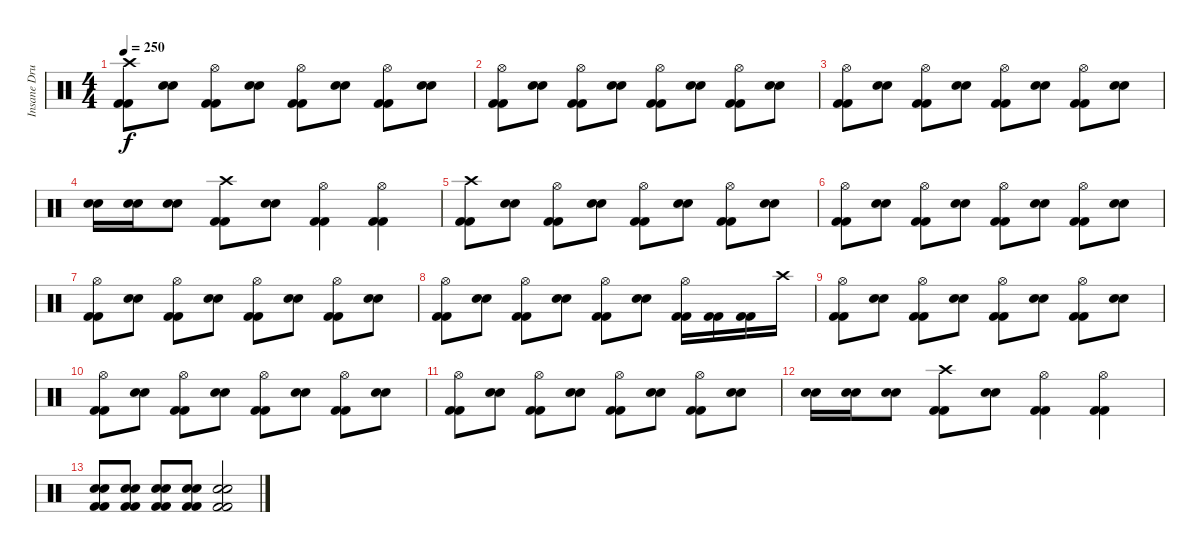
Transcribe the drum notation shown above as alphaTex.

\track ("Insane Drums" "Insane Dru") {instrument percussion}
\staff {score}
\articulation defaults
\ts (4 4)
\tempo 250
\clef neutral
\ks c
("Kick (hit) 2" "Kick (hit) 2" "Crash high (hit)").8{dy f} ("Electric Snare (hit)" "Electric Snare (hit)").8 ("Kick (hit) 2" "Kick (hit) 2" "Hi-Hat (open)").8 ("Electric Snare (hit)" "Electric Snare (hit)").8 ("Kick (hit) 2" "Kick (hit) 2" "Hi-Hat (open)").8 ("Electric Snare (hit)" "Electric Snare (hit)").8 ("Kick (hit) 2" "Kick (hit) 2" "Hi-Hat (open)").8 ("Electric Snare (hit)" "Electric Snare (hit)").8 |
("Kick (hit) 2" "Kick (hit) 2" "Hi-Hat (open)").8 ("Electric Snare (hit)" "Electric Snare (hit)").8 ("Kick (hit) 2" "Kick (hit) 2" "Hi-Hat (open)").8 ("Electric Snare (hit)" "Electric Snare (hit)").8 ("Kick (hit) 2" "Kick (hit) 2" "Hi-Hat (open)").8 ("Electric Snare (hit)" "Electric Snare (hit)").8 ("Kick (hit) 2" "Kick (hit) 2" "Hi-Hat (open)").8 ("Electric Snare (hit)" "Electric Snare (hit)").8 |
("Kick (hit) 2" "Kick (hit) 2" "Hi-Hat (open)").8 ("Electric Snare (hit)" "Electric Snare (hit)").8 ("Kick (hit) 2" "Kick (hit) 2" "Hi-Hat (open)").8 ("Electric Snare (hit)" "Electric Snare (hit)").8 ("Kick (hit) 2" "Kick (hit) 2" "Hi-Hat (open)").8 ("Electric Snare (hit)" "Electric Snare (hit)").8 ("Kick (hit) 2" "Kick (hit) 2" "Hi-Hat (open)").8 ("Electric Snare (hit)" "Electric Snare (hit)").8 |
("Electric Snare (hit)" "Electric Snare (hit)").16 ("Electric Snare (hit)" "Electric Snare (hit)").16 ("Electric Snare (hit)" "Electric Snare (hit)").8 ("Kick (hit) 2" "Kick (hit) 2" "Crash high (hit)").8 ("Electric Snare (hit)" "Electric Snare (hit)").8 ("Kick (hit) 2" "Kick (hit) 2" "Hi-Hat (open)").4 ("Kick (hit) 2" "Kick (hit) 2" "Hi-Hat (open)").4 |
("Kick (hit) 2" "Kick (hit) 2" "Crash high (hit)").8 ("Electric Snare (hit)" "Electric Snare (hit)").8 ("Kick (hit) 2" "Kick (hit) 2" "Hi-Hat (open)").8 ("Electric Snare (hit)" "Electric Snare (hit)").8 ("Kick (hit) 2" "Kick (hit) 2" "Hi-Hat (open)").8 ("Electric Snare (hit)" "Electric Snare (hit)").8 ("Kick (hit) 2" "Kick (hit) 2" "Hi-Hat (open)").8 ("Electric Snare (hit)" "Electric Snare (hit)").8 |
("Kick (hit) 2" "Kick (hit) 2" "Hi-Hat (open)").8 ("Electric Snare (hit)" "Electric Snare (hit)").8 ("Kick (hit) 2" "Kick (hit) 2" "Hi-Hat (open)").8 ("Electric Snare (hit)" "Electric Snare (hit)").8 ("Kick (hit) 2" "Kick (hit) 2" "Hi-Hat (open)").8 ("Electric Snare (hit)" "Electric Snare (hit)").8 ("Kick (hit) 2" "Kick (hit) 2" "Hi-Hat (open)").8 ("Electric Snare (hit)" "Electric Snare (hit)").8 |
("Kick (hit) 2" "Kick (hit) 2" "Hi-Hat (open)").8 ("Electric Snare (hit)" "Electric Snare (hit)").8 ("Kick (hit) 2" "Kick (hit) 2" "Hi-Hat (open)").8 ("Electric Snare (hit)" "Electric Snare (hit)").8 ("Kick (hit) 2" "Kick (hit) 2" "Hi-Hat (open)").8 ("Electric Snare (hit)" "Electric Snare (hit)").8 ("Kick (hit) 2" "Kick (hit) 2" "Hi-Hat (open)").8 ("Electric Snare (hit)" "Electric Snare (hit)").8 |
("Kick (hit) 2" "Kick (hit) 2" "Hi-Hat (open)").8 ("Electric Snare (hit)" "Electric Snare (hit)").8 ("Kick (hit) 2" "Kick (hit) 2" "Hi-Hat (open)").8 ("Electric Snare (hit)" "Electric Snare (hit)").8 ("Kick (hit) 2" "Kick (hit) 2" "Hi-Hat (open)").8 ("Electric Snare (hit)" "Electric Snare (hit)").8 ("Kick (hit) 2" "Kick (hit) 2" "Hi-Hat (open)").16 ("Kick (hit) 2" "Kick (hit) 2").16 ("Kick (hit) 2" "Kick (hit) 2").16 "Crash high (hit)".16 |
("Kick (hit) 2" "Kick (hit) 2" "Hi-Hat (open)").8 ("Electric Snare (hit)" "Electric Snare (hit)").8 ("Kick (hit) 2" "Kick (hit) 2" "Hi-Hat (open)").8 ("Electric Snare (hit)" "Electric Snare (hit)").8 ("Kick (hit) 2" "Kick (hit) 2" "Hi-Hat (open)").8 ("Electric Snare (hit)" "Electric Snare (hit)").8 ("Kick (hit) 2" "Kick (hit) 2" "Hi-Hat (open)").8 ("Electric Snare (hit)" "Electric Snare (hit)").8 |
("Kick (hit) 2" "Kick (hit) 2" "Hi-Hat (open)").8 ("Electric Snare (hit)" "Electric Snare (hit)").8 ("Kick (hit) 2" "Kick (hit) 2" "Hi-Hat (open)").8 ("Electric Snare (hit)" "Electric Snare (hit)").8 ("Kick (hit) 2" "Kick (hit) 2" "Hi-Hat (open)").8 ("Electric Snare (hit)" "Electric Snare (hit)").8 ("Kick (hit) 2" "Kick (hit) 2" "Hi-Hat (open)").8 ("Electric Snare (hit)" "Electric Snare (hit)").8 |
("Kick (hit) 2" "Kick (hit) 2" "Hi-Hat (open)").8 ("Electric Snare (hit)" "Electric Snare (hit)").8 ("Kick (hit) 2" "Kick (hit) 2" "Hi-Hat (open)").8 ("Electric Snare (hit)" "Electric Snare (hit)").8 ("Kick (hit) 2" "Kick (hit) 2" "Hi-Hat (open)").8 ("Electric Snare (hit)" "Electric Snare (hit)").8 ("Kick (hit) 2" "Kick (hit) 2" "Hi-Hat (open)").8 ("Electric Snare (hit)" "Electric Snare (hit)").8 |
("Electric Snare (hit)" "Electric Snare (hit)").16 ("Electric Snare (hit)" "Electric Snare (hit)").16 ("Electric Snare (hit)" "Electric Snare (hit)").8 ("Kick (hit) 2" "Kick (hit) 2" "Crash high (hit)").8 ("Electric Snare (hit)" "Electric Snare (hit)").8 ("Kick (hit) 2" "Kick (hit) 2" "Hi-Hat (open)").4 ("Kick (hit) 2" "Kick (hit) 2" "Hi-Hat (open)").4 |
("Kick (hit) 2" "Kick (hit) 2" "Electric Snare (hit)" "Electric Snare (hit)").8 ("Kick (hit) 2" "Kick (hit) 2" "Electric Snare (hit)" "Electric Snare (hit)").8 ("Kick (hit) 2" "Kick (hit) 2" "Electric Snare (hit)" "Electric Snare (hit)").8 ("Kick (hit) 2" "Kick (hit) 2" "Electric Snare (hit)" "Electric Snare (hit)").8 ("Kick (hit) 2" "Kick (hit) 2" "Electric Snare (hit)" "Electric Snare (hit)").2
